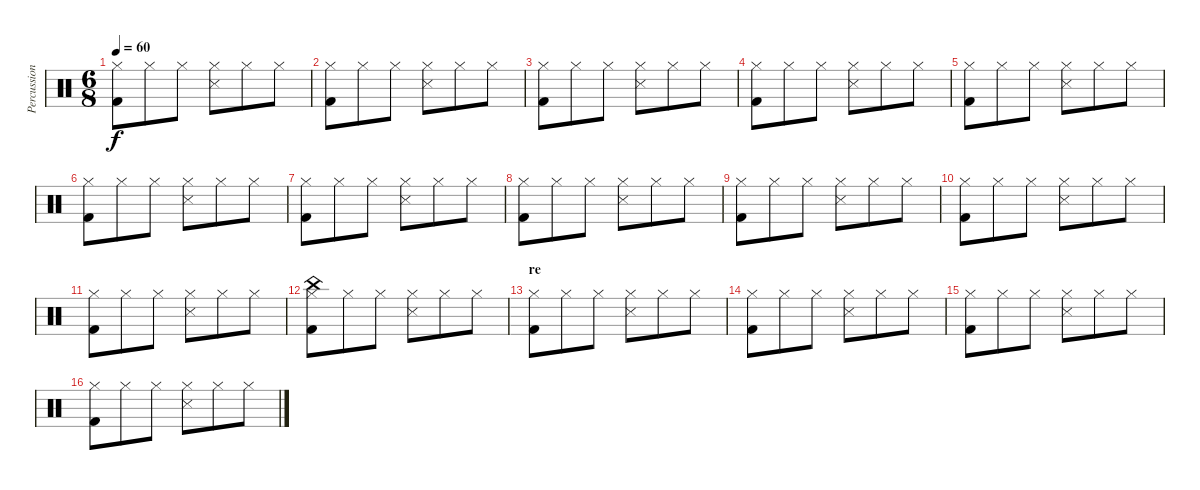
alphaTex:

\track ("Percussions" "Percussion") {instrument percussion}
\staff {score}
\articulation defaults
\ts (6 8)
\tempo 60
\clef neutral
\ks c
("Hi-Hat (closed)" "Kick (hit) 2").8{dy f} "Hi-Hat (closed)".8 "Hi-Hat (closed)".8 ("Hi-Hat (closed)" "Snare (side stick) 3").8 "Hi-Hat (closed)".8 "Hi-Hat (closed)".8 |
("Hi-Hat (closed)" "Kick (hit) 2").8 "Hi-Hat (closed)".8 "Hi-Hat (closed)".8 ("Hi-Hat (closed)" "Snare (side stick) 3").8 "Hi-Hat (closed)".8 "Hi-Hat (closed)".8 |
("Hi-Hat (closed)" "Kick (hit) 2").8 "Hi-Hat (closed)".8 "Hi-Hat (closed)".8 ("Hi-Hat (closed)" "Snare (side stick) 3").8 "Hi-Hat (closed)".8 "Hi-Hat (closed)".8 |
("Hi-Hat (closed)" "Kick (hit) 2").8 "Hi-Hat (closed)".8 "Hi-Hat (closed)".8 ("Hi-Hat (closed)" "Snare (side stick) 3").8 "Hi-Hat (closed)".8 "Hi-Hat (closed)".8 |
("Hi-Hat (closed)" "Kick (hit) 2").8 "Hi-Hat (closed)".8 "Hi-Hat (closed)".8 ("Hi-Hat (closed)" "Snare (side stick) 3").8 "Hi-Hat (closed)".8 "Hi-Hat (closed)".8 |
("Hi-Hat (closed)" "Kick (hit) 2").8 "Hi-Hat (closed)".8 "Hi-Hat (closed)".8 ("Hi-Hat (closed)" "Snare (side stick) 3").8 "Hi-Hat (closed)".8 "Hi-Hat (closed)".8 |
("Hi-Hat (closed)" "Kick (hit) 2").8 "Hi-Hat (closed)".8 "Hi-Hat (closed)".8 ("Hi-Hat (closed)" "Snare (side stick) 3").8 "Hi-Hat (closed)".8 "Hi-Hat (closed)".8 |
("Hi-Hat (closed)" "Kick (hit) 2").8 "Hi-Hat (closed)".8 "Hi-Hat (closed)".8 ("Hi-Hat (closed)" "Snare (side stick) 3").8 "Hi-Hat (closed)".8 "Hi-Hat (closed)".8 |
("Hi-Hat (closed)" "Kick (hit) 2").8 "Hi-Hat (closed)".8 "Hi-Hat (closed)".8 ("Hi-Hat (closed)" "Snare (side stick) 3").8 "Hi-Hat (closed)".8 "Hi-Hat (closed)".8 |
("Hi-Hat (closed)" "Kick (hit) 2").8 "Hi-Hat (closed)".8 "Hi-Hat (closed)".8 ("Hi-Hat (closed)" "Snare (side stick) 3").8 "Hi-Hat (closed)".8 "Hi-Hat (closed)".8 |
("Hi-Hat (closed)" "Kick (hit) 2").8 "Hi-Hat (closed)".8 "Hi-Hat (closed)".8 ("Hi-Hat (closed)" "Snare (side stick) 3").8 "Hi-Hat (closed)".8 "Hi-Hat (closed)".8 |
("Hi-Hat (closed)" "China (hit)" "Kick (hit) 2").8 "Hi-Hat (closed)".8 "Hi-Hat (closed)".8 ("Hi-Hat (closed)" "Snare (side stick) 3").8 "Hi-Hat (closed)".8 "Hi-Hat (closed)".8 |
\section ("" "re")
("Hi-Hat (closed)" "Kick (hit) 2").8 "Hi-Hat (closed)".8 "Hi-Hat (closed)".8 ("Hi-Hat (closed)" "Snare (side stick) 3").8 "Hi-Hat (closed)".8 "Hi-Hat (closed)".8 |
("Hi-Hat (closed)" "Kick (hit) 2").8 "Hi-Hat (closed)".8 "Hi-Hat (closed)".8 ("Hi-Hat (closed)" "Snare (side stick) 3").8 "Hi-Hat (closed)".8 "Hi-Hat (closed)".8 |
("Hi-Hat (closed)" "Kick (hit) 2").8 "Hi-Hat (closed)".8 "Hi-Hat (closed)".8 ("Hi-Hat (closed)" "Snare (side stick) 3").8 "Hi-Hat (closed)".8 "Hi-Hat (closed)".8 |
("Hi-Hat (closed)" "Kick (hit) 2").8 "Hi-Hat (closed)".8 "Hi-Hat (closed)".8 ("Hi-Hat (closed)" "Snare (side stick) 3").8 "Hi-Hat (closed)".8 "Hi-Hat (closed)".8
